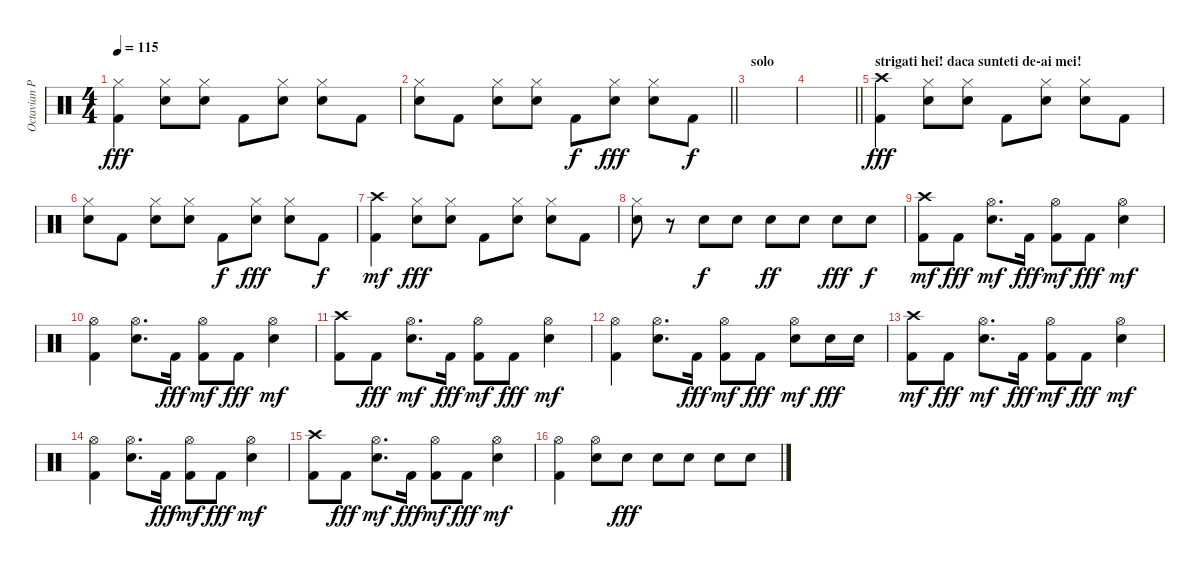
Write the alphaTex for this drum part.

\track ("Octavian Pilan" "Octavian P") {instrument percussion}
\staff {score}
\articulation defaults
\ts (4 4)
\tempo 115
\clef neutral
\ks c
("Kick (hit) 2" "Hi-Hat (closed)").4{dy fff} ("Electric Snare (hit)" "Hi-Hat (closed)").8 ("Electric Snare (hit)" "Hi-Hat (closed)").8 "Kick (hit) 2".8 ("Electric Snare (hit)" "Hi-Hat (closed)").8 ("Electric Snare (hit)" "Hi-Hat (closed)").8 "Kick (hit) 2".8 |
\barLineRight lightlight
("Electric Snare (hit)" "Hi-Hat (closed)").8 "Kick (hit) 2".8 ("Electric Snare (hit)" "Hi-Hat (closed)").8 ("Electric Snare (hit)" "Hi-Hat (closed)").8 "Kick (hit) 2".8{dy f} ("Electric Snare (hit)" "Hi-Hat (closed)").8{dy fff} ("Electric Snare (hit)" "Hi-Hat (closed)").8 "Kick (hit) 2".8{dy f} |
\section ("" "solo")
|
\barLineRight lightlight
|
\section ("" "strigati hei! daca sunteti de-ai mei!")
("Kick (hit) 2" "Crash high (hit)").4{dy fff} ("Electric Snare (hit)" "Hi-Hat (closed)").8 ("Electric Snare (hit)" "Hi-Hat (closed)").8 "Kick (hit) 2".8 ("Electric Snare (hit)" "Hi-Hat (closed)").8 ("Electric Snare (hit)" "Hi-Hat (closed)").8 "Kick (hit) 2".8 |
("Electric Snare (hit)" "Hi-Hat (closed)").8 "Kick (hit) 2".8 ("Electric Snare (hit)" "Hi-Hat (closed)").8 ("Electric Snare (hit)" "Hi-Hat (closed)").8 "Kick (hit) 2".8{dy f} ("Electric Snare (hit)" "Hi-Hat (closed)").8{dy fff} ("Electric Snare (hit)" "Hi-Hat (closed)").8 "Kick (hit) 2".8{dy f} |
("Kick (hit) 2" "Crash high (hit)").4{dy mf} ("Electric Snare (hit)" "Hi-Hat (closed)").8{dy fff} ("Electric Snare (hit)" "Hi-Hat (closed)").8 "Kick (hit) 2".8 ("Electric Snare (hit)" "Hi-Hat (closed)").8 ("Electric Snare (hit)" "Hi-Hat (closed)").8 "Kick (hit) 2".8 |
("Electric Snare (hit)" "Hi-Hat (closed)").8 r.8 "Electric Snare (hit)".8{dy f} "Electric Snare (hit)".8 "Electric Snare (hit)".8{dy ff} "Electric Snare (hit)".8 "Electric Snare (hit)".8{dy fff} "Electric Snare (hit)".8{dy f} |
("Kick (hit) 2" "Crash high (hit)").8{dy mf} "Kick (hit) 2".8{dy fff} ("Electric Snare (hit)" "Hi-Hat (open)").8{d dy mf} "Kick (hit) 2".16{dy fff} ("Kick (hit) 2" "Hi-Hat (open)").8{dy mf} "Kick (hit) 2".8{dy fff} ("Electric Snare (hit)" "Hi-Hat (open)").4{dy mf} |
("Kick (hit) 2" "Hi-Hat (open)").4 ("Electric Snare (hit)" "Hi-Hat (open)").8{d} "Kick (hit) 2".16{dy fff} ("Kick (hit) 2" "Hi-Hat (open)").8{dy mf} "Kick (hit) 2".8{dy fff} ("Electric Snare (hit)" "Hi-Hat (open)").4{dy mf} |
("Kick (hit) 2" "Crash high (hit)").8 "Kick (hit) 2".8{dy fff} ("Electric Snare (hit)" "Hi-Hat (open)").8{d dy mf} "Kick (hit) 2".16{dy fff} ("Kick (hit) 2" "Hi-Hat (open)").8{dy mf} "Kick (hit) 2".8{dy fff} ("Electric Snare (hit)" "Hi-Hat (open)").4{dy mf} |
("Kick (hit) 2" "Hi-Hat (open)").4 ("Electric Snare (hit)" "Hi-Hat (open)").8{d} "Kick (hit) 2".16{dy fff} ("Kick (hit) 2" "Hi-Hat (open)").8{dy mf} "Kick (hit) 2".8{dy fff} ("Electric Snare (hit)" "Hi-Hat (open)").8{dy mf} "Electric Snare (hit)".16{dy fff} "Electric Snare (hit)".16 |
("Kick (hit) 2" "Crash high (hit)").8{dy mf} "Kick (hit) 2".8{dy fff} ("Electric Snare (hit)" "Hi-Hat (open)").8{d dy mf} "Kick (hit) 2".16{dy fff} ("Kick (hit) 2" "Hi-Hat (open)").8{dy mf} "Kick (hit) 2".8{dy fff} ("Electric Snare (hit)" "Hi-Hat (open)").4{dy mf} |
("Kick (hit) 2" "Hi-Hat (open)").4 ("Electric Snare (hit)" "Hi-Hat (open)").8{d} "Kick (hit) 2".16{dy fff} ("Kick (hit) 2" "Hi-Hat (open)").8{dy mf} "Kick (hit) 2".8{dy fff} ("Electric Snare (hit)" "Hi-Hat (open)").4{dy mf} |
("Kick (hit) 2" "Crash high (hit)").8 "Kick (hit) 2".8{dy fff} ("Electric Snare (hit)" "Hi-Hat (open)").8{d dy mf} "Kick (hit) 2".16{dy fff} ("Kick (hit) 2" "Hi-Hat (open)").8{dy mf} "Kick (hit) 2".8{dy fff} ("Electric Snare (hit)" "Hi-Hat (open)").4{dy mf} |
("Kick (hit) 2" "Hi-Hat (open)").4 ("Electric Snare (hit)" "Hi-Hat (open)").8 "Electric Snare (hit)".8{dy fff} "Electric Snare (hit)".8 "Electric Snare (hit)".8 "Electric Snare (hit)".8 "Electric Snare (hit)".8
